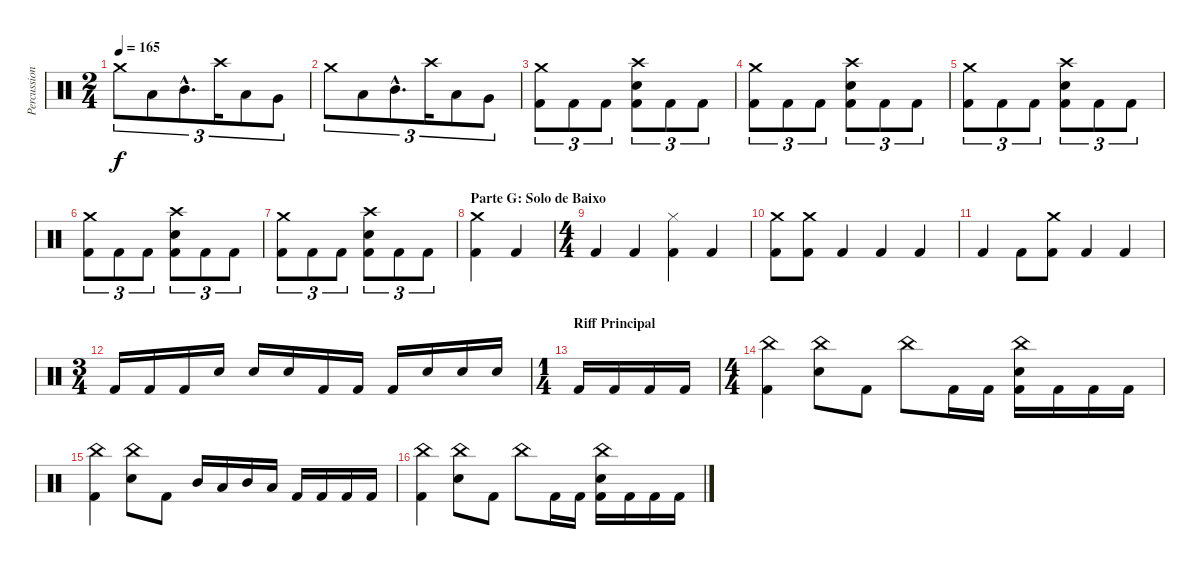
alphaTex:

\track ("Percussion" "Percussion") {instrument percussion}
\staff {score}
\articulation defaults
\ts (2 4)
\tempo 165
\clef neutral
\ks c "Crash medium (hit)".8{tu (3 2) dy f} "Low Tom (hit)".8{tu (3 2)} "Mid Tom (hit)"{hac}.8{d tu (3 2)} "Crash high (hit)".16{tu (3 2)} "Low Tom (hit)".8{tu (3 2)} "Very Low Tom (hit)".8{tu (3 2)}
|
"Crash medium (hit)".8{tu (3 2)} "Low Tom (hit)".8{tu (3 2)} "Mid Tom (hit)"{hac}.8{d tu (3 2)} "Crash high (hit)".16{tu (3 2)} "Low Tom (hit)".8{tu (3 2)} "Very Low Tom (hit)".8{tu (3 2)} |
("Crash medium (hit)" "Kick (hit) 2").8{tu (3 2)} "Kick (hit) 2".8{tu (3 2)} "Kick (hit) 2".8{tu (3 2)} ("Crash high (hit)" "Snare (hit) 2" "Kick (hit) 2").8{tu (3 2)} "Kick (hit) 2".8{tu (3 2)} "Kick (hit) 2".8{tu (3 2)} |
("Crash medium (hit)" "Kick (hit) 2").8{tu (3 2)} "Kick (hit) 2".8{tu (3 2)} "Kick (hit) 2".8{tu (3 2)} ("Crash high (hit)" "Snare (hit) 2" "Kick (hit) 2").8{tu (3 2)} "Kick (hit) 2".8{tu (3 2)} "Kick (hit) 2".8{tu (3 2)} |
("Crash medium (hit)" "Kick (hit) 2").8{tu (3 2)} "Kick (hit) 2".8{tu (3 2)} "Kick (hit) 2".8{tu (3 2)} ("Crash high (hit)" "Snare (hit) 2" "Kick (hit) 2").8{tu (3 2)} "Kick (hit) 2".8{tu (3 2)} "Kick (hit) 2".8{tu (3 2)} |
("Crash medium (hit)" "Kick (hit) 2").8{tu (3 2)} "Kick (hit) 2".8{tu (3 2)} "Kick (hit) 2".8{tu (3 2)} ("Crash high (hit)" "Snare (hit) 2" "Kick (hit) 2").8{tu (3 2)} "Kick (hit) 2".8{tu (3 2)} "Kick (hit) 2".8{tu (3 2)} |
("Crash medium (hit)" "Kick (hit) 2").8{tu (3 2)} "Kick (hit) 2".8{tu (3 2)} "Kick (hit) 2".8{tu (3 2)} ("Crash high (hit)" "Snare (hit) 2" "Kick (hit) 2").8{tu (3 2)} "Kick (hit) 2".8{tu (3 2)} "Kick (hit) 2".8{tu (3 2)} |
\section ("" "Parte G: Solo de Baixo")
("Crash medium (hit)" "Kick (hit) 2").4 "Kick (hit) 2".4 |
\ts (4 4)
"Kick (hit) 2".4 "Kick (hit) 2".4 ("Hi-Hat (closed)" "Kick (hit) 2").4 "Kick (hit) 2".4 |
("Crash medium (hit)" "Kick (hit) 2").8 ("Crash medium (hit)" "Kick (hit) 2").8 "Kick (hit) 2".4 "Kick (hit) 2".4 "Kick (hit) 2".4 |
"Kick (hit) 2".4 "Kick (hit) 2".8 ("Crash medium (hit)" "Kick (hit) 2").8 "Kick (hit) 2".4 "Kick (hit) 2".4 |
\ts (3 4)
"Kick (hit) 2".16 "Kick (hit) 2".16 "Kick (hit) 2".16 "Snare (hit) 2".16 "Snare (hit) 2".16 "Snare (hit) 2".16 "Kick (hit) 2".16 "Kick (hit) 2".16 "Kick (hit) 2".16 "Snare (hit) 2".16 "Snare (hit) 2".16 "Snare (hit) 2".16 |
\ts (1 4)
\section ("" "Riff Principal")
"Kick (hit) 2".16 "Kick (hit) 2".16 "Kick (hit) 2".16 "Kick (hit) 2".16 |
\ts (4 4)
("China (hit)" "Kick (hit) 2").4 ("China (hit)" "Snare (hit) 2").8 "Kick (hit) 2".8 "China (hit)".8 "Kick (hit) 2".16 "Kick (hit) 2".16 ("China (hit)" "Snare (hit) 2" "Kick (hit) 2").16 "Kick (hit) 2".16 "Kick (hit) 2".16 "Kick (hit) 2".16 |
("China (hit)" "Kick (hit) 2").4 ("China (hit)" "Snare (hit) 2").8 "Kick (hit) 2".8 "Mid Tom (hit)".16 "Low Tom (hit)".16 "Mid Tom (hit)".16 "Low Tom (hit)".16 "Kick (hit) 2".16 "Kick (hit) 2".16 "Kick (hit) 2".16 "Kick (hit) 2".16 |
("China (hit)" "Kick (hit) 2").4 ("China (hit)" "Snare (hit) 2").8 "Kick (hit) 2".8 "China (hit)".8 "Kick (hit) 2".16 "Kick (hit) 2".16 ("China (hit)" "Snare (hit) 2" "Kick (hit) 2").16 "Kick (hit) 2".16 "Kick (hit) 2".16 "Kick (hit) 2".16
